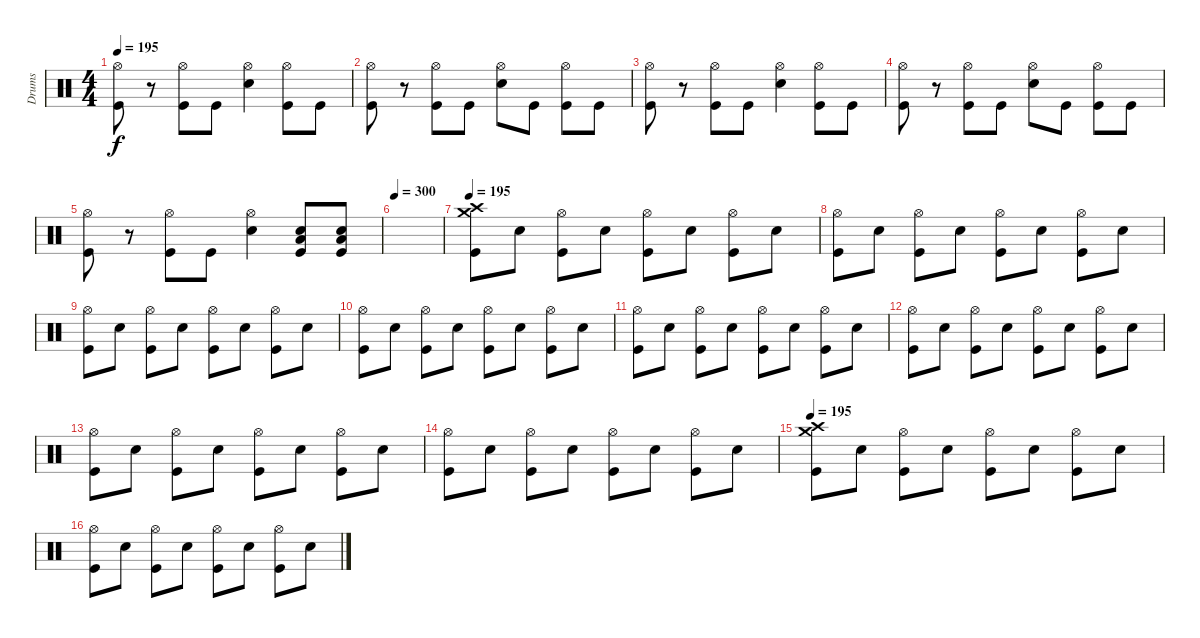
\track ("Drums" "Drums") {instrument percussion}
\staff {score}
\articulation defaults
\ts (4 4)
\tempo 195
\clef neutral
\ks c
("Hi-Hat (open)" "Kick (hit)").8{dy f} r.8 ("Hi-Hat (open)" "Kick (hit)").8 "Kick (hit)".8 ("Hi-Hat (open)" "Electric Snare (hit)").4 ("Hi-Hat (open)" "Kick (hit)").8 "Kick (hit)".8 |
("Hi-Hat (open)" "Kick (hit)").8 r.8 ("Hi-Hat (open)" "Kick (hit)").8 "Kick (hit)".8 ("Hi-Hat (open)" "Electric Snare (hit)").8 "Kick (hit)".8 ("Hi-Hat (open)" "Kick (hit)").8 "Kick (hit)".8 |
("Hi-Hat (open)" "Kick (hit)").8 r.8 ("Hi-Hat (open)" "Kick (hit)").8 "Kick (hit)".8 ("Hi-Hat (open)" "Electric Snare (hit)").4 ("Hi-Hat (open)" "Kick (hit)").8 "Kick (hit)".8 |
("Hi-Hat (open)" "Kick (hit)").8 r.8 ("Hi-Hat (open)" "Kick (hit)").8 "Kick (hit)".8 ("Hi-Hat (open)" "Electric Snare (hit)").8 "Kick (hit)".8 ("Hi-Hat (open)" "Kick (hit)").8 "Kick (hit)".8 |
("Hi-Hat (open)" "Kick (hit)").8 r.8 ("Hi-Hat (open)" "Kick (hit)").8 "Kick (hit)".8 ("Hi-Hat (open)" "Electric Snare (hit)").4 ("Electric Snare (hit)" "Low Floor Tom (hit)" "Kick (hit)").8 ("Electric Snare (hit)" "Low Floor Tom (hit)" "Kick (hit)").8 |
\tempo 300
|
\tempo 195
("Crash high (hit)" "Crash medium (hit)" "Kick (hit)").8 "Electric Snare (hit)".8 ("Hi-Hat (open)" "Kick (hit)").8 "Electric Snare (hit)".8 ("Hi-Hat (open)" "Kick (hit)").8 "Electric Snare (hit)".8 ("Hi-Hat (open)" "Kick (hit)").8 "Electric Snare (hit)".8 |
("Hi-Hat (open)" "Kick (hit)").8 "Electric Snare (hit)".8 ("Hi-Hat (open)" "Kick (hit)").8 "Electric Snare (hit)".8 ("Hi-Hat (open)" "Kick (hit)").8 "Electric Snare (hit)".8 ("Hi-Hat (open)" "Kick (hit)").8 "Electric Snare (hit)".8 |
("Hi-Hat (open)" "Kick (hit)").8 "Electric Snare (hit)".8 ("Hi-Hat (open)" "Kick (hit)").8 "Electric Snare (hit)".8 ("Hi-Hat (open)" "Kick (hit)").8 "Electric Snare (hit)".8 ("Hi-Hat (open)" "Kick (hit)").8 "Electric Snare (hit)".8 |
("Hi-Hat (open)" "Kick (hit)").8 "Electric Snare (hit)".8 ("Hi-Hat (open)" "Kick (hit)").8 "Electric Snare (hit)".8 ("Hi-Hat (open)" "Kick (hit)").8 "Electric Snare (hit)".8 ("Hi-Hat (open)" "Kick (hit)").8 "Electric Snare (hit)".8 |
("Hi-Hat (open)" "Kick (hit)").8 "Electric Snare (hit)".8 ("Hi-Hat (open)" "Kick (hit)").8 "Electric Snare (hit)".8 ("Hi-Hat (open)" "Kick (hit)").8 "Electric Snare (hit)".8 ("Hi-Hat (open)" "Kick (hit)").8 "Electric Snare (hit)".8 |
("Hi-Hat (open)" "Kick (hit)").8 "Electric Snare (hit)".8 ("Hi-Hat (open)" "Kick (hit)").8 "Electric Snare (hit)".8 ("Hi-Hat (open)" "Kick (hit)").8 "Electric Snare (hit)".8 ("Hi-Hat (open)" "Kick (hit)").8 "Electric Snare (hit)".8 |
("Hi-Hat (open)" "Kick (hit)").8 "Electric Snare (hit)".8 ("Hi-Hat (open)" "Kick (hit)").8 "Electric Snare (hit)".8 ("Hi-Hat (open)" "Kick (hit)").8 "Electric Snare (hit)".8 ("Hi-Hat (open)" "Kick (hit)").8 "Electric Snare (hit)".8 |
("Hi-Hat (open)" "Kick (hit)").8 "Electric Snare (hit)".8 ("Hi-Hat (open)" "Kick (hit)").8 "Electric Snare (hit)".8 ("Hi-Hat (open)" "Kick (hit)").8 "Electric Snare (hit)".8 ("Hi-Hat (open)" "Kick (hit)").8 "Electric Snare (hit)".8 |
\tempo 195
("Crash high (hit)" "Crash medium (hit)" "Kick (hit)").8 "Electric Snare (hit)".8 ("Hi-Hat (open)" "Kick (hit)").8 "Electric Snare (hit)".8 ("Hi-Hat (open)" "Kick (hit)").8 "Electric Snare (hit)".8 ("Hi-Hat (open)" "Kick (hit)").8 "Electric Snare (hit)".8 |
("Hi-Hat (open)" "Kick (hit)").8 "Electric Snare (hit)".8 ("Hi-Hat (open)" "Kick (hit)").8 "Electric Snare (hit)".8 ("Hi-Hat (open)" "Kick (hit)").8 "Electric Snare (hit)".8 ("Hi-Hat (open)" "Kick (hit)").8 "Electric Snare (hit)".8
